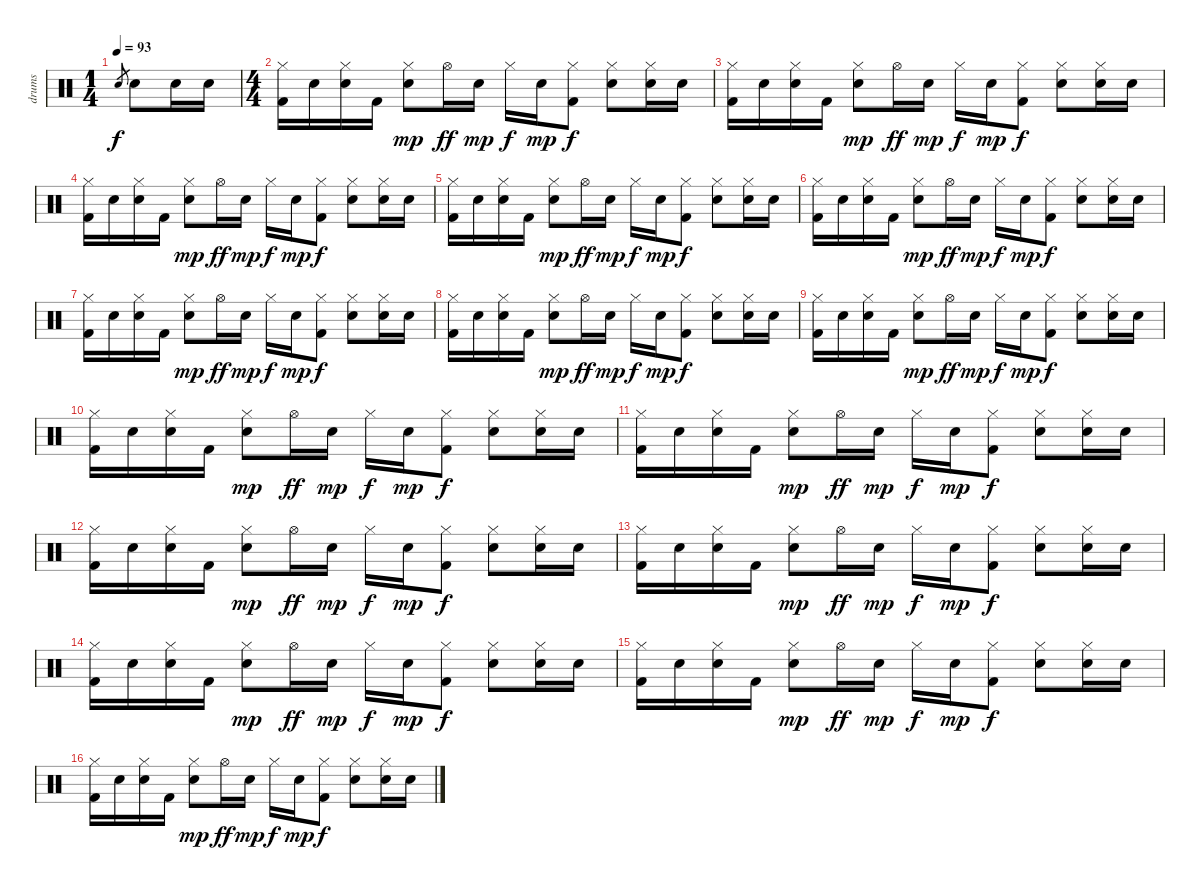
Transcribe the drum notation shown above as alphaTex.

\track ("drums" "drums") {instrument percussion}
\staff {score}
\articulation defaults
\ts (1 4)
\tempo 93
\clef neutral
\ks c "Electric Snare (hit)".8{gr dy f} "Electric Snare (hit)".8 "Electric Snare (hit)".16 "Electric Snare (hit)".16
|
\ts (4 4)
("Hi-Hat (closed)" "Kick (hit) 2").16 "Electric Snare (hit)".16 ("Hi-Hat (closed)" "Electric Snare (hit)").16 "Kick (hit) 2".16 ("Hi-Hat (closed)" "Electric Snare (hit)").8{dy mp} "Hi-Hat (open)".16{dy ff} "Electric Snare (hit)".16{dy mp} "Hi-Hat (closed)".16{dy f} "Electric Snare (hit)".16{dy mp} ("Hi-Hat (closed)" "Kick (hit) 2").8{dy f} ("Hi-Hat (closed)" "Electric Snare (hit)").8 ("Hi-Hat (closed)" "Electric Snare (hit)").16 "Electric Snare (hit)".16 |
("Hi-Hat (closed)" "Kick (hit) 2").16 "Electric Snare (hit)".16 ("Hi-Hat (closed)" "Electric Snare (hit)").16 "Kick (hit) 2".16 ("Hi-Hat (closed)" "Electric Snare (hit)").8{dy mp} "Hi-Hat (open)".16{dy ff} "Electric Snare (hit)".16{dy mp} "Hi-Hat (closed)".16{dy f} "Electric Snare (hit)".16{dy mp} ("Hi-Hat (closed)" "Kick (hit) 2").8{dy f} ("Hi-Hat (closed)" "Electric Snare (hit)").8 ("Hi-Hat (closed)" "Electric Snare (hit)").16 "Electric Snare (hit)".16 |
("Hi-Hat (closed)" "Kick (hit) 2").16 "Electric Snare (hit)".16 ("Hi-Hat (closed)" "Electric Snare (hit)").16 "Kick (hit) 2".16 ("Hi-Hat (closed)" "Electric Snare (hit)").8{dy mp} "Hi-Hat (open)".16{dy ff} "Electric Snare (hit)".16{dy mp} "Hi-Hat (closed)".16{dy f} "Electric Snare (hit)".16{dy mp} ("Hi-Hat (closed)" "Kick (hit) 2").8{dy f} ("Hi-Hat (closed)" "Electric Snare (hit)").8 ("Hi-Hat (closed)" "Electric Snare (hit)").16 "Electric Snare (hit)".16 |
("Hi-Hat (closed)" "Kick (hit) 2").16 "Electric Snare (hit)".16 ("Hi-Hat (closed)" "Electric Snare (hit)").16 "Kick (hit) 2".16 ("Hi-Hat (closed)" "Electric Snare (hit)").8{dy mp} "Hi-Hat (open)".16{dy ff} "Electric Snare (hit)".16{dy mp} "Hi-Hat (closed)".16{dy f} "Electric Snare (hit)".16{dy mp} ("Hi-Hat (closed)" "Kick (hit) 2").8{dy f} ("Hi-Hat (closed)" "Electric Snare (hit)").8 ("Hi-Hat (closed)" "Electric Snare (hit)").16 "Electric Snare (hit)".16 |
("Hi-Hat (closed)" "Kick (hit) 2").16 "Electric Snare (hit)".16 ("Hi-Hat (closed)" "Electric Snare (hit)").16 "Kick (hit) 2".16 ("Hi-Hat (closed)" "Electric Snare (hit)").8{dy mp} "Hi-Hat (open)".16{dy ff} "Electric Snare (hit)".16{dy mp} "Hi-Hat (closed)".16{dy f} "Electric Snare (hit)".16{dy mp} ("Hi-Hat (closed)" "Kick (hit) 2").8{dy f} ("Hi-Hat (closed)" "Electric Snare (hit)").8 ("Hi-Hat (closed)" "Electric Snare (hit)").16 "Electric Snare (hit)".16 |
("Hi-Hat (closed)" "Kick (hit) 2").16 "Electric Snare (hit)".16 ("Hi-Hat (closed)" "Electric Snare (hit)").16 "Kick (hit) 2".16 ("Hi-Hat (closed)" "Electric Snare (hit)").8{dy mp} "Hi-Hat (open)".16{dy ff} "Electric Snare (hit)".16{dy mp} "Hi-Hat (closed)".16{dy f} "Electric Snare (hit)".16{dy mp} ("Hi-Hat (closed)" "Kick (hit) 2").8{dy f} ("Hi-Hat (closed)" "Electric Snare (hit)").8 ("Hi-Hat (closed)" "Electric Snare (hit)").16 "Electric Snare (hit)".16 |
("Hi-Hat (closed)" "Kick (hit) 2").16 "Electric Snare (hit)".16 ("Hi-Hat (closed)" "Electric Snare (hit)").16 "Kick (hit) 2".16 ("Hi-Hat (closed)" "Electric Snare (hit)").8{dy mp} "Hi-Hat (open)".16{dy ff} "Electric Snare (hit)".16{dy mp} "Hi-Hat (closed)".16{dy f} "Electric Snare (hit)".16{dy mp} ("Hi-Hat (closed)" "Kick (hit) 2").8{dy f} ("Hi-Hat (closed)" "Electric Snare (hit)").8 ("Hi-Hat (closed)" "Electric Snare (hit)").16 "Electric Snare (hit)".16 |
("Hi-Hat (closed)" "Kick (hit) 2").16 "Electric Snare (hit)".16 ("Hi-Hat (closed)" "Electric Snare (hit)").16 "Kick (hit) 2".16 ("Hi-Hat (closed)" "Electric Snare (hit)").8{dy mp} "Hi-Hat (open)".16{dy ff} "Electric Snare (hit)".16{dy mp} "Hi-Hat (closed)".16{dy f} "Electric Snare (hit)".16{dy mp} ("Hi-Hat (closed)" "Kick (hit) 2").8{dy f} ("Hi-Hat (closed)" "Electric Snare (hit)").8 ("Hi-Hat (closed)" "Electric Snare (hit)").16 "Electric Snare (hit)".16 |
("Hi-Hat (closed)" "Kick (hit) 2").16 "Electric Snare (hit)".16 ("Hi-Hat (closed)" "Electric Snare (hit)").16 "Kick (hit) 2".16 ("Hi-Hat (closed)" "Electric Snare (hit)").8{dy mp} "Hi-Hat (open)".16{dy ff} "Electric Snare (hit)".16{dy mp} "Hi-Hat (closed)".16{dy f} "Electric Snare (hit)".16{dy mp} ("Hi-Hat (closed)" "Kick (hit) 2").8{dy f} ("Hi-Hat (closed)" "Electric Snare (hit)").8 ("Hi-Hat (closed)" "Electric Snare (hit)").16 "Electric Snare (hit)".16 |
("Hi-Hat (closed)" "Kick (hit) 2").16 "Electric Snare (hit)".16 ("Hi-Hat (closed)" "Electric Snare (hit)").16 "Kick (hit) 2".16 ("Hi-Hat (closed)" "Electric Snare (hit)").8{dy mp} "Hi-Hat (open)".16{dy ff} "Electric Snare (hit)".16{dy mp} "Hi-Hat (closed)".16{dy f} "Electric Snare (hit)".16{dy mp} ("Hi-Hat (closed)" "Kick (hit) 2").8{dy f} ("Hi-Hat (closed)" "Electric Snare (hit)").8 ("Hi-Hat (closed)" "Electric Snare (hit)").16 "Electric Snare (hit)".16 |
("Hi-Hat (closed)" "Kick (hit) 2").16 "Electric Snare (hit)".16 ("Hi-Hat (closed)" "Electric Snare (hit)").16 "Kick (hit) 2".16 ("Hi-Hat (closed)" "Electric Snare (hit)").8{dy mp} "Hi-Hat (open)".16{dy ff} "Electric Snare (hit)".16{dy mp} "Hi-Hat (closed)".16{dy f} "Electric Snare (hit)".16{dy mp} ("Hi-Hat (closed)" "Kick (hit) 2").8{dy f} ("Hi-Hat (closed)" "Electric Snare (hit)").8 ("Hi-Hat (closed)" "Electric Snare (hit)").16 "Electric Snare (hit)".16 |
("Hi-Hat (closed)" "Kick (hit) 2").16 "Electric Snare (hit)".16 ("Hi-Hat (closed)" "Electric Snare (hit)").16 "Kick (hit) 2".16 ("Hi-Hat (closed)" "Electric Snare (hit)").8{dy mp} "Hi-Hat (open)".16{dy ff} "Electric Snare (hit)".16{dy mp} "Hi-Hat (closed)".16{dy f} "Electric Snare (hit)".16{dy mp} ("Hi-Hat (closed)" "Kick (hit) 2").8{dy f} ("Hi-Hat (closed)" "Electric Snare (hit)").8 ("Hi-Hat (closed)" "Electric Snare (hit)").16 "Electric Snare (hit)".16 |
("Hi-Hat (closed)" "Kick (hit) 2").16 "Electric Snare (hit)".16 ("Hi-Hat (closed)" "Electric Snare (hit)").16 "Kick (hit) 2".16 ("Hi-Hat (closed)" "Electric Snare (hit)").8{dy mp} "Hi-Hat (open)".16{dy ff} "Electric Snare (hit)".16{dy mp} "Hi-Hat (closed)".16{dy f} "Electric Snare (hit)".16{dy mp} ("Hi-Hat (closed)" "Kick (hit) 2").8{dy f} ("Hi-Hat (closed)" "Electric Snare (hit)").8 ("Hi-Hat (closed)" "Electric Snare (hit)").16 "Electric Snare (hit)".16 |
("Hi-Hat (closed)" "Kick (hit) 2").16 "Electric Snare (hit)".16 ("Hi-Hat (closed)" "Electric Snare (hit)").16 "Kick (hit) 2".16 ("Hi-Hat (closed)" "Electric Snare (hit)").8{dy mp} "Hi-Hat (open)".16{dy ff} "Electric Snare (hit)".16{dy mp} "Hi-Hat (closed)".16{dy f} "Electric Snare (hit)".16{dy mp} ("Hi-Hat (closed)" "Kick (hit) 2").8{dy f} ("Hi-Hat (closed)" "Electric Snare (hit)").8 ("Hi-Hat (closed)" "Electric Snare (hit)").16 "Electric Snare (hit)".16 |
("Hi-Hat (closed)" "Kick (hit) 2").16 "Electric Snare (hit)".16 ("Hi-Hat (closed)" "Electric Snare (hit)").16 "Kick (hit) 2".16 ("Hi-Hat (closed)" "Electric Snare (hit)").8{dy mp} "Hi-Hat (open)".16{dy ff} "Electric Snare (hit)".16{dy mp} "Hi-Hat (closed)".16{dy f} "Electric Snare (hit)".16{dy mp} ("Hi-Hat (closed)" "Kick (hit) 2").8{dy f} ("Hi-Hat (closed)" "Electric Snare (hit)").8 ("Hi-Hat (closed)" "Electric Snare (hit)").16 "Electric Snare (hit)".16
